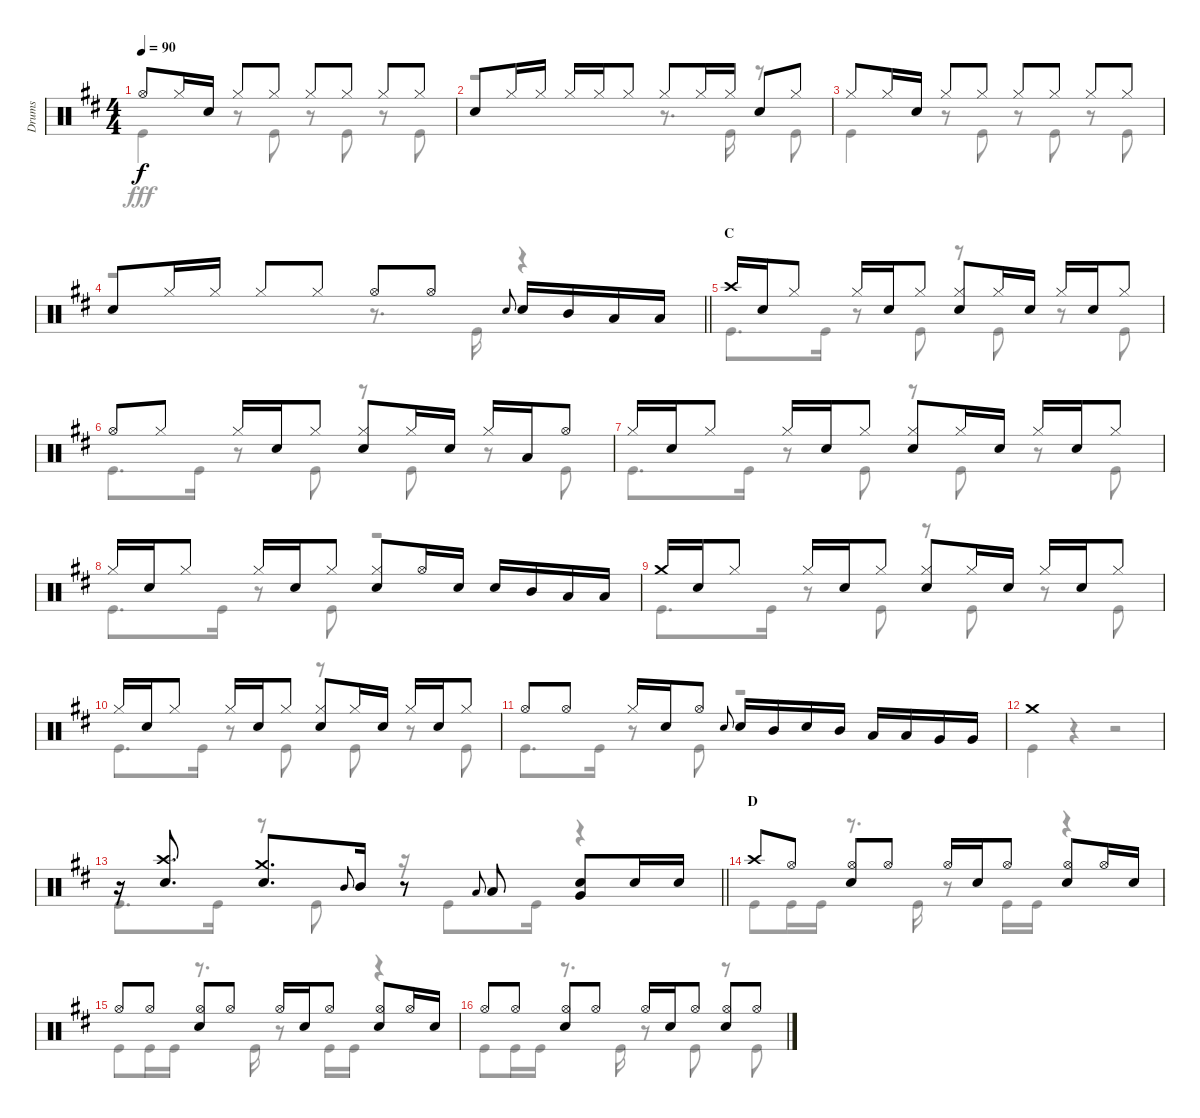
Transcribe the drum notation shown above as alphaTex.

\track ("Drums" "Drums") {instrument percussion}
\staff {score}
\articulation defaults
\voice
\ts (4 4)
\tempo 90
\clef neutral
\ks d "Hi-Hat (open)".8{dy f} "Hi-Hat (closed)".16 "Snare (hit) 2".16 "Hi-Hat (closed)".8 "Hi-Hat (closed)".8 "Hi-Hat (closed)".8 "Hi-Hat (closed)".8 "Hi-Hat (closed)".8 "Hi-Hat (closed)".8
|
"Snare (hit) 2".8 "Hi-Hat (closed)".16 "Hi-Hat (closed)".16 "Hi-Hat (closed)".16 "Hi-Hat (closed)".16 "Hi-Hat (closed)".8 "Hi-Hat (closed)".8 "Hi-Hat (closed)".16 "Hi-Hat (closed)".16 "Snare (hit) 2".8 "Hi-Hat (closed)".8 |
"Hi-Hat (closed)".8 "Hi-Hat (closed)".16 "Snare (hit) 2".16 "Hi-Hat (closed)".8 "Hi-Hat (closed)".8 "Hi-Hat (closed)".8 "Hi-Hat (closed)".8 "Hi-Hat (closed)".8 "Hi-Hat (closed)".8 |
\barLineRight lightlight "Snare (hit) 2".8 "Hi-Hat (closed)".16 "Hi-Hat (closed)".16 "Hi-Hat (closed)".8 "Hi-Hat (closed)".8 "Hi-Hat (open)".8 "Hi-Hat (open)".8 "Snare (hit) 2".8{gr onbeat} "Snare (hit) 2".16 "Mid Tom (hit)".16 "Low Tom (hit)".16 "Low Tom (hit)".16
|
\section ("" "C")
"Crash high (hit)".16 "Snare (hit) 2".16 "Hi-Hat (closed)".8 "Hi-Hat (closed)".16 "Snare (hit) 2".16 "Hi-Hat (closed)".8 ("Hi-Hat (closed)" "Snare (hit) 2").8 "Hi-Hat (closed)".16 "Snare (hit) 2".16 "Hi-Hat (closed)".16 "Snare (hit) 2".16 "Hi-Hat (closed)".8 |
"Hi-Hat (open)".8 "Hi-Hat (closed)".8 "Hi-Hat (closed)".16 "Snare (hit) 2".16 "Hi-Hat (closed)".8 ("Hi-Hat (closed)" "Snare (hit) 2").8 "Hi-Hat (closed)".16 "Snare (hit) 2".16 "Hi-Hat (closed)".16 "Low Tom (hit)".16 "Hi-Hat (open)".8 |
"Hi-Hat (closed)".16 "Snare (hit) 2".16 "Hi-Hat (closed)".8 "Hi-Hat (closed)".16 "Snare (hit) 2".16 "Hi-Hat (closed)".8 ("Hi-Hat (closed)" "Snare (hit) 2").8 "Hi-Hat (closed)".16 "Snare (hit) 2".16 "Hi-Hat (closed)".16 "Snare (hit) 2".16 "Hi-Hat (closed)".8 |
"Hi-Hat (closed)".16 "Snare (hit) 2".16 "Hi-Hat (closed)".8 "Hi-Hat (closed)".16 "Snare (hit) 2".16 "Hi-Hat (closed)".8 ("Hi-Hat (closed)" "Snare (hit) 2").8 "Hi-Hat (open)".16 "Snare (hit) 2".16 "Snare (hit) 2".16 "Mid Tom (hit)".16 "Low Tom (hit)".16 "Low Tom (hit)".16 |
"Crash medium (hit)".16 "Snare (hit) 2".16 "Hi-Hat (closed)".8 "Hi-Hat (closed)".16 "Snare (hit) 2".16 "Hi-Hat (closed)".8 ("Hi-Hat (closed)" "Snare (hit) 2").8 "Hi-Hat (closed)".16 "Snare (hit) 2".16 "Hi-Hat (closed)".16 "Snare (hit) 2".16 "Hi-Hat (closed)".8 |
"Hi-Hat (closed)".16 "Snare (hit) 2".16 "Hi-Hat (closed)".8 "Hi-Hat (closed)".16 "Snare (hit) 2".16 "Hi-Hat (closed)".8 ("Hi-Hat (closed)" "Snare (hit) 2").8 "Hi-Hat (closed)".16 "Snare (hit) 2".16 "Hi-Hat (closed)".16 "Snare (hit) 2".16 "Hi-Hat (closed)".8 |
"Hi-Hat (open)".8 "Hi-Hat (open)".8 "Hi-Hat (closed)".16 "Snare (hit) 2".16 "Hi-Hat (open)".8 "Snare (hit) 2".8{gr onbeat} "Snare (hit) 2".16 "Mid Tom (hit)".16 "Snare (hit) 2".16 "Mid Tom (hit)".16 "Low Tom (hit)".16 "Low Tom (hit)".16 "Very Low Tom (hit)".16 "Very Low Tom (hit)".16 |
"Crash medium (hit)".1 |
\barLineRight lightlight
r.16 ("Crash high (hit)" "Snare (hit) 2").8{d} ("Crash medium (hit)" "Snare (hit) 2").8{d} "Mid Tom (hit)".8{gr onbeat} "Mid Tom (hit)".16 r.8 "Low Tom (hit)".8{gr onbeat} "Low Tom (hit)".8 ("Snare (hit) 2" "Very Low Tom (hit)").8 "Snare (hit) 2".16 "Snare (hit) 2".16 |
\section ("" "D")
"Crash high (hit)".8 "Hi-Hat (open)".8 ("Hi-Hat (open)" "Snare (hit) 2").8 "Hi-Hat (open)".8 "Hi-Hat (open)".16 "Snare (hit) 2".16 "Hi-Hat (open)".8 ("Hi-Hat (open)" "Snare (hit) 2").8 "Hi-Hat (open)".16 "Snare (hit) 2".16 |
"Hi-Hat (open)".8 "Hi-Hat (open)".8 ("Hi-Hat (open)" "Snare (hit) 2").8 "Hi-Hat (open)".8 "Hi-Hat (open)".16 "Snare (hit) 2".16 "Hi-Hat (open)".8 ("Hi-Hat (open)" "Snare (hit) 2").8 "Hi-Hat (open)".16 "Snare (hit) 2".16 |
"Hi-Hat (open)".8 "Hi-Hat (open)".8 ("Hi-Hat (open)" "Snare (hit) 2").8 "Hi-Hat (open)".8 "Hi-Hat (open)".16 "Snare (hit) 2".16 "Hi-Hat (open)".8 ("Hi-Hat (open)" "Snare (hit) 2").8 "Hi-Hat (open)".8
\voice
\clef neutral
\ottava regular
\simile none
\ks d "Kick (hit)".4{dy fff}
r.8 "Kick (hit)".8 r.8 "Kick (hit)".8 r.8 "Kick (hit)".8 |
r.2 r.8{d} "Kick (hit)".16 r.8 "Kick (hit)".8 |
"Kick (hit)".4 r.8 "Kick (hit)".8 r.8 "Kick (hit)".8 r.8 "Kick (hit)".8 |
\barLineRight lightlight
r.2 r.8{d} "Kick (hit)".16 r.4 |
"Kick (hit)".8{d} "Kick (hit)".16 r.8 "Kick (hit)".8 r.8 "Kick (hit)".8 r.8 "Kick (hit)".8 |
"Kick (hit)".8{d} "Kick (hit)".16 r.8 "Kick (hit)".8 r.8 "Kick (hit)".8 r.8 "Kick (hit)".8 |
"Kick (hit)".8{d} "Kick (hit)".16 r.8 "Kick (hit)".8 r.8 "Kick (hit)".8 r.8 "Kick (hit)".8 |
"Kick (hit)".8{d} "Kick (hit)".16 r.8 "Kick (hit)".8 r.2 |
"Kick (hit)".8{d} "Kick (hit)".16 r.8 "Kick (hit)".8 r.8 "Kick (hit)".8 r.8 "Kick (hit)".8 |
"Kick (hit)".8{d} "Kick (hit)".16 r.8 "Kick (hit)".8 r.8 "Kick (hit)".8 r.8 "Kick (hit)".8 |
"Kick (hit)".8{d} "Kick (hit)".16 r.8 "Kick (hit)".8 r.2 |
"Kick (hit)".4 r.4 r.2 |
\barLineRight lightlight "Kick (hit)".8{d} "Kick (hit)".16
r.8 "Kick (hit)".8 r.16 "Kick (hit)".8 "Kick (hit)".16 r.4 |
"Kick (hit)".8 "Kick (hit)".16 "Kick (hit)".16 r.8{d} "Kick (hit)".16 r.8 "Kick (hit)".16 "Kick (hit)".16 r.4 |
"Kick (hit)".8 "Kick (hit)".16 "Kick (hit)".16 r.8{d} "Kick (hit)".16 r.8 "Kick (hit)".16 "Kick (hit)".16 r.4 |
"Kick (hit)".8 "Kick (hit)".16 "Kick (hit)".16 r.8{d} "Kick (hit)".16 r.8 "Kick (hit)".8 r.8 "Kick (hit)".8
